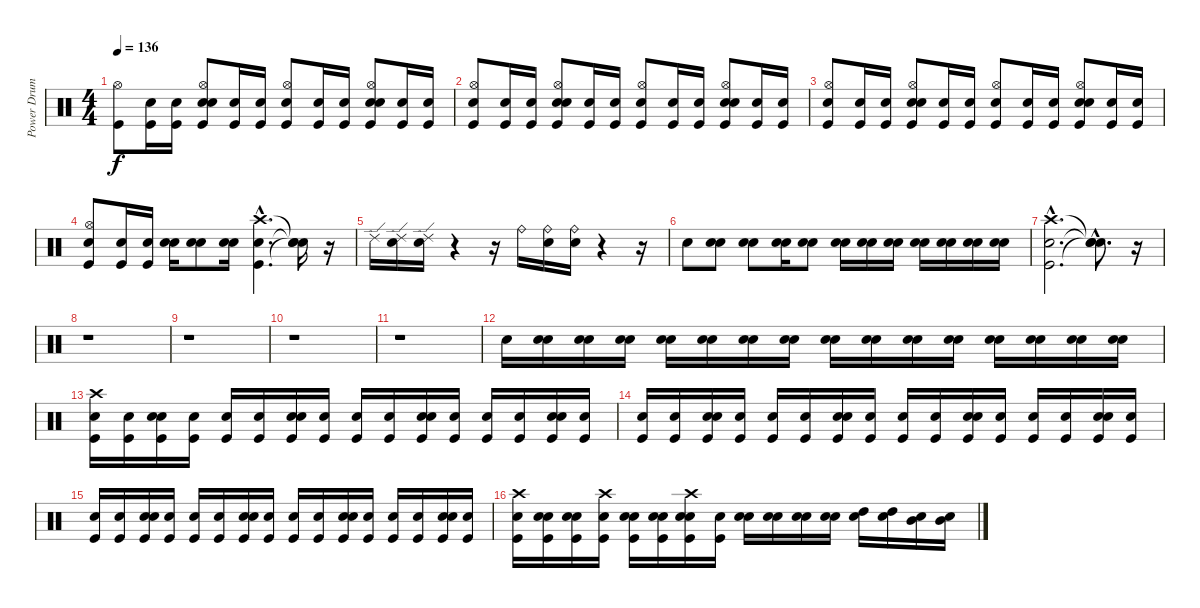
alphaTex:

\track ("Power Drums" "Power Drum") {instrument percussion}
\staff {score}
\articulation defaults
\ts (4 4)
\tempo 136
\clef neutral
\ks c
("Kick (hit)" "Hi-Hat (open)").8{dy f} ("Snare (hit)" "Kick (hit)").16 ("Snare (hit)" "Kick (hit)").16 ("Snare (hit)" "Kick (hit)" "Snare (hit) 2" "Hi-Hat (open)").8 ("Snare (hit)" "Kick (hit)").16 ("Snare (hit)" "Kick (hit)").16 ("Snare (hit)" "Kick (hit)" "Hi-Hat (open)").8 ("Snare (hit)" "Kick (hit)").16 ("Snare (hit)" "Kick (hit)").16 ("Snare (hit)" "Kick (hit)" "Snare (hit) 2" "Hi-Hat (open)").8 ("Snare (hit)" "Kick (hit)").16 ("Snare (hit)" "Kick (hit)").16 |
("Snare (hit)" "Kick (hit)" "Hi-Hat (open)").8 ("Snare (hit)" "Kick (hit)").16 ("Snare (hit)" "Kick (hit)").16 ("Snare (hit)" "Kick (hit)" "Snare (hit) 2" "Hi-Hat (open)").8 ("Snare (hit)" "Kick (hit)").16 ("Snare (hit)" "Kick (hit)").16 ("Snare (hit)" "Kick (hit)" "Hi-Hat (open)").8 ("Snare (hit)" "Kick (hit)").16 ("Snare (hit)" "Kick (hit)").16 ("Snare (hit)" "Kick (hit)" "Snare (hit) 2" "Hi-Hat (open)").8 ("Snare (hit)" "Kick (hit)").16 ("Snare (hit)" "Kick (hit)").16 |
("Snare (hit)" "Kick (hit)" "Hi-Hat (open)").8 ("Snare (hit)" "Kick (hit)").16 ("Snare (hit)" "Kick (hit)").16 ("Snare (hit)" "Kick (hit)" "Snare (hit) 2" "Hi-Hat (open)").8 ("Snare (hit)" "Kick (hit)").16 ("Snare (hit)" "Kick (hit)").16 ("Snare (hit)" "Kick (hit)" "Hi-Hat (open)").8 ("Snare (hit)" "Kick (hit)").16 ("Snare (hit)" "Kick (hit)").16 ("Snare (hit)" "Kick (hit)" "Snare (hit) 2" "Hi-Hat (open)").8 ("Snare (hit)" "Kick (hit)").16 ("Snare (hit)" "Kick (hit)").16 |
("Snare (hit)" "Kick (hit)" "Hi-Hat (open)").8 ("Snare (hit)" "Kick (hit)").16 ("Snare (hit)" "Kick (hit)").16 ("Snare (hit)" "Snare (hit) 2").16 ("Snare (hit)" "Snare (hit) 2").8 ("Snare (hit)" "Snare (hit) 2").16 ("Snare (hit)"{hac} "Kick (hit)"{hac} "Crash high (hit)"{hac}).4{d} ("Snare (hit)"{t} "Snare (hit)"{t} "Snare (hit)"{t}).16 r.16 |
"Ride (edge) 2".16 ("Snare (hit)" "Ride (edge) 2").16 ("Snare (hit)" "Ride (edge) 2").16 r.4 r.16 "Ride (bell)".16 ("Snare (hit)" "Ride (bell)").16 ("Snare (hit)" "Ride (bell)").16 r.4 r.16 |
"Snare (hit) 2".8 ("Snare (hit)" "Snare (hit) 2").8 ("Snare (hit)" "Snare (hit) 2").8 ("Snare (hit)" "Snare (hit) 2").16 ("Snare (hit)" "Snare (hit) 2").8 ("Snare (hit)" "Snare (hit) 2").16 ("Snare (hit)" "Snare (hit) 2").16 ("Snare (hit)" "Snare (hit) 2").16 ("Snare (hit)" "Snare (hit) 2").16 ("Snare (hit)" "Snare (hit) 2").16 ("Snare (hit)" "Snare (hit) 2").16 ("Snare (hit)" "Snare (hit) 2").16 |
("Snare (hit)"{hac} "Kick (hit)"{hac} "Crash high (hit)"{hac}).2{d} ("Snare (hit)"{hac t} "Snare (hit)"{hac t} "Snare (hit)"{hac t}).8{d} r.16 |
r.1 |
r.1 |
r.1 |
r.1 |
"Snare (hit) 2".16 ("Snare (hit)" "Snare (hit) 2").16 ("Snare (hit)" "Snare (hit) 2").16 ("Snare (hit)" "Snare (hit) 2").16 ("Snare (hit)" "Snare (hit) 2").16 ("Snare (hit)" "Snare (hit) 2").16 ("Snare (hit)" "Snare (hit) 2").16 ("Snare (hit)" "Snare (hit) 2").16 ("Snare (hit)" "Snare (hit) 2").16 ("Snare (hit)" "Snare (hit) 2").16 ("Snare (hit)" "Snare (hit) 2").16 ("Snare (hit)" "Snare (hit) 2").16 ("Snare (hit)" "Snare (hit) 2").16 ("Snare (hit)" "Snare (hit) 2").16 ("Snare (hit)" "Snare (hit) 2").16 ("Snare (hit)" "Snare (hit) 2").16 |
("Snare (hit)" "Kick (hit)" "Crash high (hit)").16 ("Snare (hit)" "Kick (hit)").16 ("Snare (hit)" "Kick (hit)" "Snare (hit) 2").16 ("Snare (hit)" "Kick (hit)").16 ("Snare (hit)" "Kick (hit)").16 ("Snare (hit)" "Kick (hit)").16 ("Snare (hit)" "Kick (hit)" "Snare (hit) 2").16 ("Snare (hit)" "Kick (hit)").16 ("Snare (hit)" "Kick (hit)").16 ("Snare (hit)" "Kick (hit)").16 ("Snare (hit)" "Kick (hit)" "Snare (hit) 2").16 ("Snare (hit)" "Kick (hit)").16 ("Snare (hit)" "Kick (hit)").16 ("Snare (hit)" "Kick (hit)").16 ("Snare (hit)" "Kick (hit)" "Snare (hit) 2").16 ("Snare (hit)" "Kick (hit)").16 |
("Snare (hit)" "Kick (hit)").16 ("Snare (hit)" "Kick (hit)").16 ("Snare (hit)" "Kick (hit)" "Snare (hit) 2").16 ("Snare (hit)" "Kick (hit)").16 ("Snare (hit)" "Kick (hit)").16 ("Snare (hit)" "Kick (hit)").16 ("Snare (hit)" "Kick (hit)" "Snare (hit) 2").16 ("Snare (hit)" "Kick (hit)").16 ("Snare (hit)" "Kick (hit)").16 ("Snare (hit)" "Kick (hit)").16 ("Snare (hit)" "Kick (hit)" "Snare (hit) 2").16 ("Snare (hit)" "Kick (hit)").16 ("Snare (hit)" "Kick (hit)").16 ("Snare (hit)" "Kick (hit)").16 ("Snare (hit)" "Kick (hit)" "Snare (hit) 2").16 ("Snare (hit)" "Kick (hit)").16 |
("Snare (hit)" "Kick (hit)").16 ("Snare (hit)" "Kick (hit)").16 ("Snare (hit)" "Kick (hit)" "Snare (hit) 2").16 ("Snare (hit)" "Kick (hit)").16 ("Snare (hit)" "Kick (hit)").16 ("Snare (hit)" "Kick (hit)").16 ("Snare (hit)" "Kick (hit)" "Snare (hit) 2").16 ("Snare (hit)" "Kick (hit)").16 ("Snare (hit)" "Kick (hit)").16 ("Snare (hit)" "Kick (hit)").16 ("Snare (hit)" "Kick (hit)" "Snare (hit) 2").16 ("Snare (hit)" "Kick (hit)").16 ("Snare (hit)" "Kick (hit)").16 ("Snare (hit)" "Kick (hit)").16 ("Snare (hit)" "Kick (hit)" "Snare (hit) 2").16 ("Snare (hit)" "Kick (hit)").16 |
("Snare (hit)" "Kick (hit)" "Crash high (hit)").16 ("Snare (hit)" "Kick (hit)" "Snare (hit) 2").16 ("Snare (hit)" "Kick (hit)" "Snare (hit) 2").16 ("Snare (hit)" "Kick (hit)" "Crash high (hit)").16 ("Snare (hit)" "Kick (hit)" "Snare (hit) 2").16 ("Snare (hit)" "Kick (hit)" "Snare (hit) 2").16 ("Snare (hit)" "Kick (hit)" "Snare (hit) 2" "Crash high (hit)").16 ("Snare (hit)" "Kick (hit)").16 ("Snare (hit)" "Snare (hit) 2").16 ("Snare (hit)" "Snare (hit) 2").16 ("Snare (hit)" "Snare (hit) 2").16 ("Snare (hit)" "Snare (hit) 2").16 ("Snare (hit)" "High Tom (hit)").16 ("Snare (hit)" "High Tom (hit)").16 ("Snare (hit)" "Mid Tom (hit)").16 ("Snare (hit)" "Mid Tom (hit)").16
